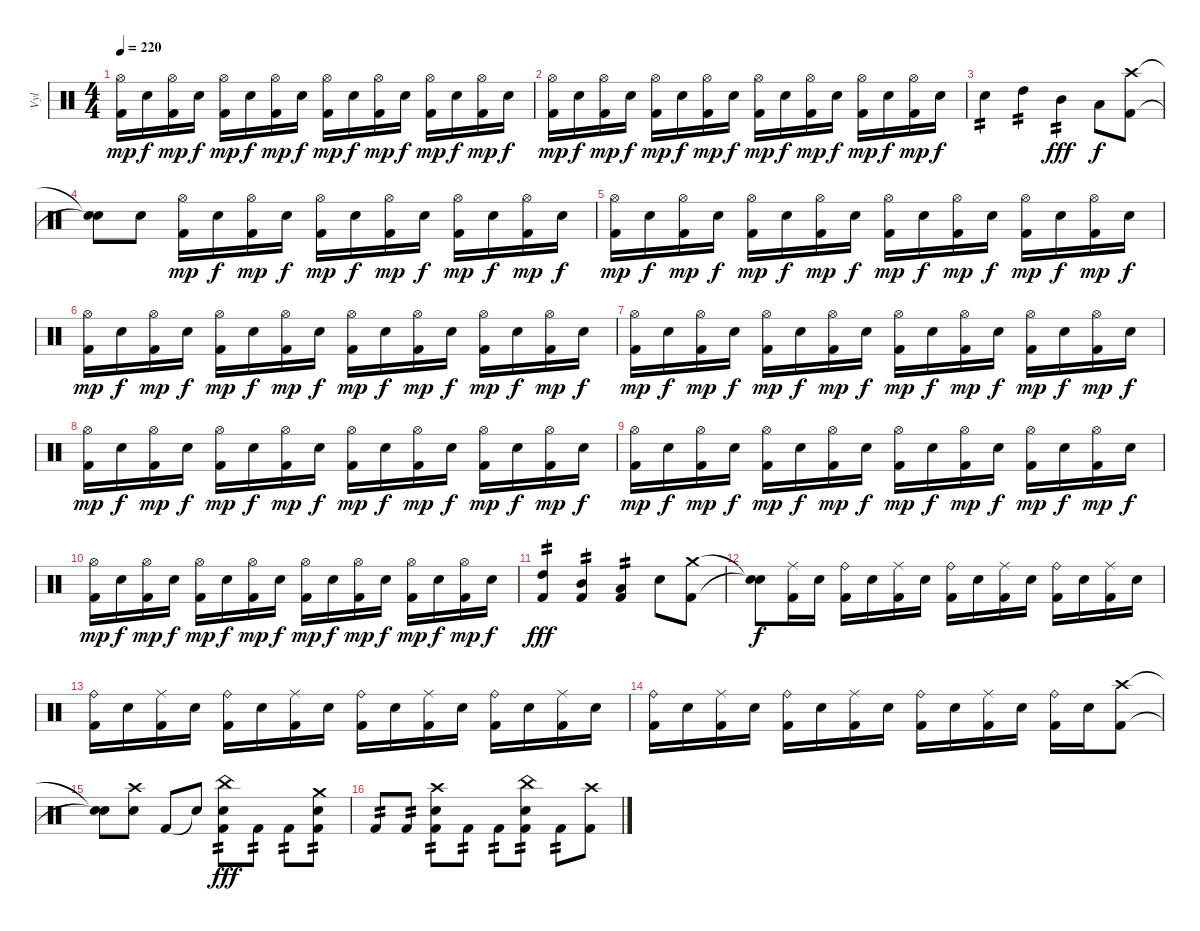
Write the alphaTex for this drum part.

\track ("Vyl" "Vyl") {instrument percussion}
\staff {score}
\articulation defaults
\ts (4 4)
\tempo 220
\clef neutral
\ks c
("Hi-Hat (open)" "Kick (hit) 2").16{dy mp} "Snare (hit) 2".16{dy f} ("Hi-Hat (open)" "Kick (hit) 2").16{dy mp} "Snare (hit) 2".16{dy f} ("Hi-Hat (open)" "Kick (hit) 2").16{dy mp} "Snare (hit) 2".16{dy f} ("Hi-Hat (open)" "Kick (hit) 2").16{dy mp} "Snare (hit) 2".16{dy f} ("Hi-Hat (open)" "Kick (hit) 2").16{dy mp} "Snare (hit) 2".16{dy f} ("Hi-Hat (open)" "Kick (hit) 2").16{dy mp} "Snare (hit) 2".16{dy f} ("Hi-Hat (open)" "Kick (hit) 2").16{dy mp} "Snare (hit) 2".16{dy f} ("Hi-Hat (open)" "Kick (hit) 2").16{dy mp} "Snare (hit) 2".16{dy f} |
("Hi-Hat (open)" "Kick (hit) 2").16{dy mp} "Snare (hit) 2".16{dy f} ("Hi-Hat (open)" "Kick (hit) 2").16{dy mp} "Snare (hit) 2".16{dy f} ("Hi-Hat (open)" "Kick (hit) 2").16{dy mp} "Snare (hit) 2".16{dy f} ("Hi-Hat (open)" "Kick (hit) 2").16{dy mp} "Snare (hit) 2".16{dy f} ("Hi-Hat (open)" "Kick (hit) 2").16{dy mp} "Snare (hit) 2".16{dy f} ("Hi-Hat (open)" "Kick (hit) 2").16{dy mp} "Snare (hit) 2".16{dy f} ("Hi-Hat (open)" "Kick (hit) 2").16{dy mp} "Snare (hit) 2".16{dy f} ("Hi-Hat (open)" "Kick (hit) 2").16{dy mp} "Snare (hit) 2".16{dy f} |
"Snare (hit) 2".4{tp 2} "High Tom (hit)".4{tp 2} "Mid Tom (hit)".4{tp 2 dy fff} "Low Tom (hit)".8{dy f} ("Crash high (hit)" "Kick (hit) 2").8 |
("Snare (hit)"{t} "Snare (hit)"{t}).8 "Snare (hit) 2".8 ("Hi-Hat (open)" "Kick (hit) 2").16{dy mp} "Snare (hit) 2".16{dy f} ("Hi-Hat (open)" "Kick (hit) 2").16{dy mp} "Snare (hit) 2".16{dy f} ("Hi-Hat (open)" "Kick (hit) 2").16{dy mp} "Snare (hit) 2".16{dy f} ("Hi-Hat (open)" "Kick (hit) 2").16{dy mp} "Snare (hit) 2".16{dy f} ("Hi-Hat (open)" "Kick (hit) 2").16{dy mp} "Snare (hit) 2".16{dy f} ("Hi-Hat (open)" "Kick (hit) 2").16{dy mp} "Snare (hit) 2".16{dy f} |
("Hi-Hat (open)" "Kick (hit) 2").16{dy mp} "Snare (hit) 2".16{dy f} ("Hi-Hat (open)" "Kick (hit) 2").16{dy mp} "Snare (hit) 2".16{dy f} ("Hi-Hat (open)" "Kick (hit) 2").16{dy mp} "Snare (hit) 2".16{dy f} ("Hi-Hat (open)" "Kick (hit) 2").16{dy mp} "Snare (hit) 2".16{dy f} ("Hi-Hat (open)" "Kick (hit) 2").16{dy mp} "Snare (hit) 2".16{dy f} ("Hi-Hat (open)" "Kick (hit) 2").16{dy mp} "Snare (hit) 2".16{dy f} ("Hi-Hat (open)" "Kick (hit) 2").16{dy mp} "Snare (hit) 2".16{dy f} ("Hi-Hat (open)" "Kick (hit) 2").16{dy mp} "Snare (hit) 2".16{dy f} |
("Hi-Hat (open)" "Kick (hit) 2").16{dy mp} "Snare (hit) 2".16{dy f} ("Hi-Hat (open)" "Kick (hit) 2").16{dy mp} "Snare (hit) 2".16{dy f} ("Hi-Hat (open)" "Kick (hit) 2").16{dy mp} "Snare (hit) 2".16{dy f} ("Hi-Hat (open)" "Kick (hit) 2").16{dy mp} "Snare (hit) 2".16{dy f} ("Hi-Hat (open)" "Kick (hit) 2").16{dy mp} "Snare (hit) 2".16{dy f} ("Hi-Hat (open)" "Kick (hit) 2").16{dy mp} "Snare (hit) 2".16{dy f} ("Hi-Hat (open)" "Kick (hit) 2").16{dy mp} "Snare (hit) 2".16{dy f} ("Hi-Hat (open)" "Kick (hit) 2").16{dy mp} "Snare (hit) 2".16{dy f} |
("Hi-Hat (open)" "Kick (hit) 2").16{dy mp} "Snare (hit) 2".16{dy f} ("Hi-Hat (open)" "Kick (hit) 2").16{dy mp} "Snare (hit) 2".16{dy f} ("Hi-Hat (open)" "Kick (hit) 2").16{dy mp} "Snare (hit) 2".16{dy f} ("Hi-Hat (open)" "Kick (hit) 2").16{dy mp} "Snare (hit) 2".16{dy f} ("Hi-Hat (open)" "Kick (hit) 2").16{dy mp} "Snare (hit) 2".16{dy f} ("Hi-Hat (open)" "Kick (hit) 2").16{dy mp} "Snare (hit) 2".16{dy f} ("Hi-Hat (open)" "Kick (hit) 2").16{dy mp} "Snare (hit) 2".16{dy f} ("Hi-Hat (open)" "Kick (hit) 2").16{dy mp} "Snare (hit) 2".16{dy f} |
("Hi-Hat (open)" "Kick (hit) 2").16{dy mp} "Snare (hit) 2".16{dy f} ("Hi-Hat (open)" "Kick (hit) 2").16{dy mp} "Snare (hit) 2".16{dy f} ("Hi-Hat (open)" "Kick (hit) 2").16{dy mp} "Snare (hit) 2".16{dy f} ("Hi-Hat (open)" "Kick (hit) 2").16{dy mp} "Snare (hit) 2".16{dy f} ("Hi-Hat (open)" "Kick (hit) 2").16{dy mp} "Snare (hit) 2".16{dy f} ("Hi-Hat (open)" "Kick (hit) 2").16{dy mp} "Snare (hit) 2".16{dy f} ("Hi-Hat (open)" "Kick (hit) 2").16{dy mp} "Snare (hit) 2".16{dy f} ("Hi-Hat (open)" "Kick (hit) 2").16{dy mp} "Snare (hit) 2".16{dy f} |
("Hi-Hat (open)" "Kick (hit) 2").16{dy mp} "Snare (hit) 2".16{dy f} ("Hi-Hat (open)" "Kick (hit) 2").16{dy mp} "Snare (hit) 2".16{dy f} ("Hi-Hat (open)" "Kick (hit) 2").16{dy mp} "Snare (hit) 2".16{dy f} ("Hi-Hat (open)" "Kick (hit) 2").16{dy mp} "Snare (hit) 2".16{dy f} ("Hi-Hat (open)" "Kick (hit) 2").16{dy mp} "Snare (hit) 2".16{dy f} ("Hi-Hat (open)" "Kick (hit) 2").16{dy mp} "Snare (hit) 2".16{dy f} ("Hi-Hat (open)" "Kick (hit) 2").16{dy mp} "Snare (hit) 2".16{dy f} ("Hi-Hat (open)" "Kick (hit) 2").16{dy mp} "Snare (hit) 2".16{dy f} |
("Hi-Hat (open)" "Kick (hit) 2").16{dy mp} "Snare (hit) 2".16{dy f} ("Hi-Hat (open)" "Kick (hit) 2").16{dy mp} "Snare (hit) 2".16{dy f} ("Hi-Hat (open)" "Kick (hit) 2").16{dy mp} "Snare (hit) 2".16{dy f} ("Hi-Hat (open)" "Kick (hit) 2").16{dy mp} "Snare (hit) 2".16{dy f} ("Hi-Hat (open)" "Kick (hit) 2").16{dy mp} "Snare (hit) 2".16{dy f} ("Hi-Hat (open)" "Kick (hit) 2").16{dy mp} "Snare (hit) 2".16{dy f} ("Hi-Hat (open)" "Kick (hit) 2").16{dy mp} "Snare (hit) 2".16{dy f} ("Hi-Hat (open)" "Kick (hit) 2").16{dy mp} "Snare (hit) 2".16{dy f} |
("Kick (hit) 2" "High Tom (hit)").4{tp 2 dy fff} ("Kick (hit) 2" "Mid Tom (hit)").4{tp 2} ("Kick (hit) 2" "Low Tom (hit)").4{tp 2} "Snare (hit) 2".8 ("Crash medium (hit)" "Kick (hit) 2").8 |
("Snare (hit)"{t} "Snare (hit)"{t}).8{dy f} ("Ride (middle)" "Kick (hit) 2").16 "Snare (hit) 2".16 ("Ride (bell)" "Kick (hit) 2").16 "Snare (hit) 2".16 ("Ride (middle)" "Kick (hit) 2").16 "Snare (hit) 2".16 ("Ride (bell)" "Kick (hit) 2").16 "Snare (hit) 2".16 ("Ride (middle)" "Kick (hit) 2").16 "Snare (hit) 2".16 ("Ride (bell)" "Kick (hit) 2").16 "Snare (hit) 2".16 ("Ride (middle)" "Kick (hit) 2").16 "Snare (hit) 2".16 |
("Ride (bell)" "Kick (hit) 2").16 "Snare (hit) 2".16 ("Ride (middle)" "Kick (hit) 2").16 "Snare (hit) 2".16 ("Ride (bell)" "Kick (hit) 2").16 "Snare (hit) 2".16 ("Ride (middle)" "Kick (hit) 2").16 "Snare (hit) 2".16 ("Ride (bell)" "Kick (hit) 2").16 "Snare (hit) 2".16 ("Ride (middle)" "Kick (hit) 2").16 "Snare (hit) 2".16 ("Ride (bell)" "Kick (hit) 2").16 "Snare (hit) 2".16 ("Ride (middle)" "Kick (hit) 2").16 "Snare (hit) 2".16 |
("Ride (bell)" "Kick (hit) 2").16 "Snare (hit) 2".16 ("Ride (middle)" "Kick (hit) 2").16 "Snare (hit) 2".16 ("Ride (bell)" "Kick (hit) 2").16 "Snare (hit) 2".16 ("Ride (middle)" "Kick (hit) 2").16 "Snare (hit) 2".16 ("Ride (bell)" "Kick (hit) 2").16 "Snare (hit) 2".16 ("Ride (middle)" "Kick (hit) 2").16 "Snare (hit) 2".16 ("Ride (bell)" "Kick (hit) 2").16 "Snare (hit) 2".16 ("Crash high (hit)" "Kick (hit) 2").8 |
("Snare (hit)"{t} "Snare (hit)"{t}).8 ("Crash high (hit)" "Snare (hit) 2").8 "Kick (hit) 2".8 "Snare (hit)"{t}.8 ("China (hit)" "Snare (hit) 2" "Kick (hit) 2").8{tp 2 dy fff} "Kick (hit) 2".8{tp 2} "Kick (hit) 2".8{tp 2} ("Crash medium (hit)" "Snare (hit) 2" "Kick (hit) 2").8{tp 2} |
"Kick (hit) 2".8{tp 2} "Kick (hit) 2".8{tp 2} ("Crash high (hit)" "Snare (hit) 2" "Kick (hit) 2").8{tp 2} "Kick (hit) 2".8{tp 2} "Kick (hit) 2".8{tp 2} ("China (hit)" "Snare (hit) 2" "Kick (hit) 2").8{tp 2} "Kick (hit) 2".8{tp 2} ("Crash high (hit)" "Kick (hit) 2").8
